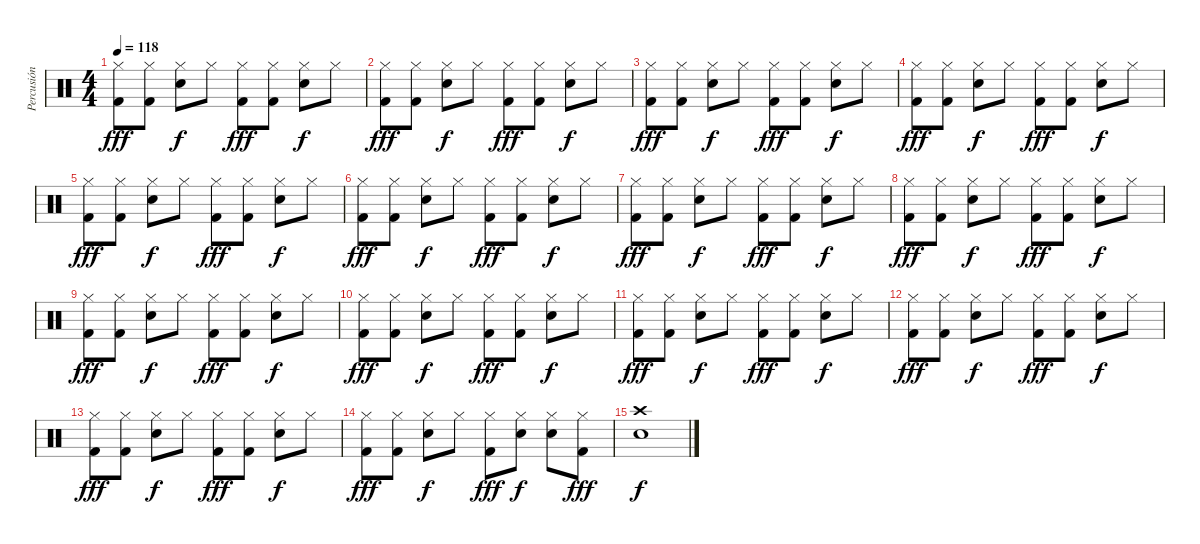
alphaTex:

\track ("Percusión" "Percusión") {instrument percussion}
\staff {score}
\articulation defaults
\ts (4 4)
\tempo 118
\clef neutral
\ks c
("Hi-Hat (closed)" "Kick (hit) 2").8{dy fff} ("Hi-Hat (closed)" "Kick (hit) 2").8 ("Hi-Hat (closed)" "Snare (hit) 2").8{dy f} "Hi-Hat (closed)".8 ("Hi-Hat (closed)" "Kick (hit) 2").8{dy fff} ("Hi-Hat (closed)" "Kick (hit) 2").8 ("Hi-Hat (closed)" "Snare (hit) 2").8{dy f} "Hi-Hat (closed)".8 |
("Hi-Hat (closed)" "Kick (hit) 2").8{dy fff} ("Hi-Hat (closed)" "Kick (hit) 2").8 ("Hi-Hat (closed)" "Snare (hit) 2").8{dy f} "Hi-Hat (closed)".8 ("Hi-Hat (closed)" "Kick (hit) 2").8{dy fff} ("Hi-Hat (closed)" "Kick (hit) 2").8 ("Hi-Hat (closed)" "Snare (hit) 2").8{dy f} "Hi-Hat (closed)".8 |
("Hi-Hat (closed)" "Kick (hit) 2").8{dy fff} ("Hi-Hat (closed)" "Kick (hit) 2").8 ("Hi-Hat (closed)" "Snare (hit) 2").8{dy f} "Hi-Hat (closed)".8 ("Hi-Hat (closed)" "Kick (hit) 2").8{dy fff} ("Hi-Hat (closed)" "Kick (hit) 2").8 ("Hi-Hat (closed)" "Snare (hit) 2").8{dy f} "Hi-Hat (closed)".8 |
("Hi-Hat (closed)" "Kick (hit) 2").8{dy fff} ("Hi-Hat (closed)" "Kick (hit) 2").8 ("Hi-Hat (closed)" "Snare (hit) 2").8{dy f} "Hi-Hat (closed)".8 ("Hi-Hat (closed)" "Kick (hit) 2").8{dy fff} ("Hi-Hat (closed)" "Kick (hit) 2").8 ("Hi-Hat (closed)" "Snare (hit) 2").8{dy f} "Hi-Hat (closed)".8 |
("Hi-Hat (closed)" "Kick (hit) 2").8{dy fff} ("Hi-Hat (closed)" "Kick (hit) 2").8 ("Hi-Hat (closed)" "Snare (hit) 2").8{dy f} "Hi-Hat (closed)".8 ("Hi-Hat (closed)" "Kick (hit) 2").8{dy fff} ("Hi-Hat (closed)" "Kick (hit) 2").8 ("Hi-Hat (closed)" "Snare (hit) 2").8{dy f} "Hi-Hat (closed)".8 |
("Hi-Hat (closed)" "Kick (hit) 2").8{dy fff} ("Hi-Hat (closed)" "Kick (hit) 2").8 ("Hi-Hat (closed)" "Snare (hit) 2").8{dy f} "Hi-Hat (closed)".8 ("Hi-Hat (closed)" "Kick (hit) 2").8{dy fff} ("Hi-Hat (closed)" "Kick (hit) 2").8 ("Hi-Hat (closed)" "Snare (hit) 2").8{dy f} "Hi-Hat (closed)".8 |
("Hi-Hat (closed)" "Kick (hit) 2").8{dy fff} ("Hi-Hat (closed)" "Kick (hit) 2").8 ("Hi-Hat (closed)" "Snare (hit) 2").8{dy f} "Hi-Hat (closed)".8 ("Hi-Hat (closed)" "Kick (hit) 2").8{dy fff} ("Hi-Hat (closed)" "Kick (hit) 2").8 ("Hi-Hat (closed)" "Snare (hit) 2").8{dy f} "Hi-Hat (closed)".8 |
("Hi-Hat (closed)" "Kick (hit) 2").8{dy fff} ("Hi-Hat (closed)" "Kick (hit) 2").8 ("Hi-Hat (closed)" "Snare (hit) 2").8{dy f} "Hi-Hat (closed)".8 ("Hi-Hat (closed)" "Kick (hit) 2").8{dy fff} ("Hi-Hat (closed)" "Kick (hit) 2").8 ("Hi-Hat (closed)" "Snare (hit) 2").8{dy f} "Hi-Hat (closed)".8 |
("Hi-Hat (closed)" "Kick (hit) 2").8{dy fff} ("Hi-Hat (closed)" "Kick (hit) 2").8 ("Hi-Hat (closed)" "Snare (hit) 2").8{dy f} "Hi-Hat (closed)".8 ("Hi-Hat (closed)" "Kick (hit) 2").8{dy fff} ("Hi-Hat (closed)" "Kick (hit) 2").8 ("Hi-Hat (closed)" "Snare (hit) 2").8{dy f} "Hi-Hat (closed)".8 |
("Hi-Hat (closed)" "Kick (hit) 2").8{dy fff} ("Hi-Hat (closed)" "Kick (hit) 2").8 ("Hi-Hat (closed)" "Snare (hit) 2").8{dy f} "Hi-Hat (closed)".8 ("Hi-Hat (closed)" "Kick (hit) 2").8{dy fff} ("Hi-Hat (closed)" "Kick (hit) 2").8 ("Hi-Hat (closed)" "Snare (hit) 2").8{dy f} "Hi-Hat (closed)".8 |
("Hi-Hat (closed)" "Kick (hit) 2").8{dy fff} ("Hi-Hat (closed)" "Kick (hit) 2").8 ("Hi-Hat (closed)" "Snare (hit) 2").8{dy f} "Hi-Hat (closed)".8 ("Hi-Hat (closed)" "Kick (hit) 2").8{dy fff} ("Hi-Hat (closed)" "Kick (hit) 2").8 ("Hi-Hat (closed)" "Snare (hit) 2").8{dy f} "Hi-Hat (closed)".8 |
("Hi-Hat (closed)" "Kick (hit) 2").8{dy fff} ("Hi-Hat (closed)" "Kick (hit) 2").8 ("Hi-Hat (closed)" "Snare (hit) 2").8{dy f} "Hi-Hat (closed)".8 ("Hi-Hat (closed)" "Kick (hit) 2").8{dy fff} ("Hi-Hat (closed)" "Kick (hit) 2").8 ("Hi-Hat (closed)" "Snare (hit) 2").8{dy f} "Hi-Hat (closed)".8 |
("Hi-Hat (closed)" "Kick (hit) 2").8{dy fff} ("Hi-Hat (closed)" "Kick (hit) 2").8 ("Hi-Hat (closed)" "Snare (hit) 2").8{dy f} "Hi-Hat (closed)".8 ("Hi-Hat (closed)" "Kick (hit) 2").8{dy fff} ("Hi-Hat (closed)" "Kick (hit) 2").8 ("Hi-Hat (closed)" "Snare (hit) 2").8{dy f} "Hi-Hat (closed)".8 |
("Hi-Hat (closed)" "Kick (hit) 2").8{dy fff} ("Hi-Hat (closed)" "Kick (hit) 2").8 ("Hi-Hat (closed)" "Snare (hit) 2").8{dy f} "Hi-Hat (closed)".8 ("Hi-Hat (closed)" "Kick (hit) 2").8{dy fff} ("Hi-Hat (closed)" "Snare (hit) 2").8{dy f} ("Hi-Hat (closed)" "Snare (hit) 2").8 ("Hi-Hat (closed)" "Kick (hit) 2").8{dy fff} |
("Crash high (hit)" "Snare (hit) 2").1{dy f}
